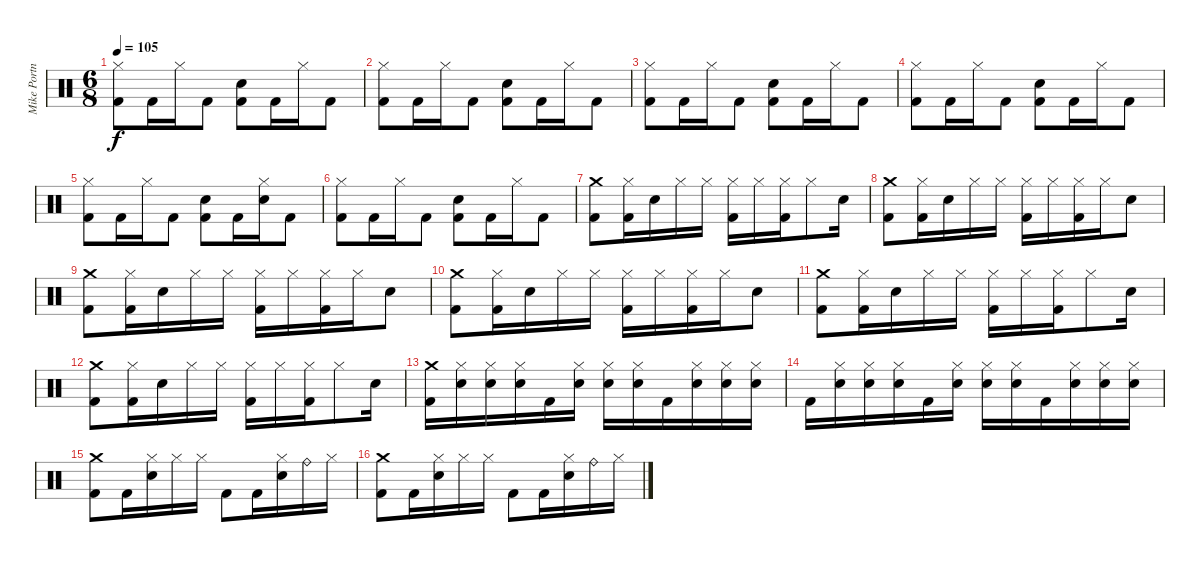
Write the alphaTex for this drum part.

\track ("Mike Portnoy" "Mike Portn") {instrument percussion}
\staff {score}
\articulation defaults
\ts (6 8)
\tempo 105
\clef neutral
\ks c
("Hi-Hat (closed)" "Kick (hit) 2").8{dy f} "Kick (hit) 2".16 "Hi-Hat (closed)".16 "Kick (hit) 2".8 ("Electric Snare (hit)" "Kick (hit) 2").8 "Kick (hit) 2".16 "Hi-Hat (closed)".16 "Kick (hit) 2".8 |
("Hi-Hat (closed)" "Kick (hit) 2").8 "Kick (hit) 2".16 "Hi-Hat (closed)".16 "Kick (hit) 2".8 ("Electric Snare (hit)" "Kick (hit) 2").8 "Kick (hit) 2".16 "Hi-Hat (closed)".16 "Kick (hit) 2".8 |
("Hi-Hat (closed)" "Kick (hit) 2").8 "Kick (hit) 2".16 "Hi-Hat (closed)".16 "Kick (hit) 2".8 ("Electric Snare (hit)" "Kick (hit) 2").8 "Kick (hit) 2".16 "Hi-Hat (closed)".16 "Kick (hit) 2".8 |
("Hi-Hat (closed)" "Kick (hit) 2").8 "Kick (hit) 2".16 "Hi-Hat (closed)".16 "Kick (hit) 2".8 ("Electric Snare (hit)" "Kick (hit) 2").8 "Kick (hit) 2".16 "Hi-Hat (closed)".16 "Kick (hit) 2".8 |
("Hi-Hat (closed)" "Kick (hit) 2").8 "Kick (hit) 2".16 "Hi-Hat (closed)".16 "Kick (hit) 2".8 ("Electric Snare (hit)" "Kick (hit) 2").8 "Kick (hit) 2".16 ("Hi-Hat (closed)" "Electric Snare (hit)").16 "Kick (hit) 2".8 |
("Hi-Hat (closed)" "Kick (hit) 2").8 "Kick (hit) 2".16 "Hi-Hat (closed)".16 "Kick (hit) 2".8 ("Electric Snare (hit)" "Kick (hit) 2").8 "Kick (hit) 2".16 "Hi-Hat (closed)".16 "Kick (hit) 2".8 |
("Crash medium (hit)" "Kick (hit) 2").8 ("Hi-Hat (closed)" "Kick (hit) 2").16 "Electric Snare (hit)".16 "Hi-Hat (closed)".16 "Hi-Hat (closed)".16 ("Hi-Hat (closed)" "Kick (hit) 2").16 "Hi-Hat (closed)".16 ("Hi-Hat (closed)" "Kick (hit) 2").16 "Hi-Hat (closed)".8 "Electric Snare (hit)".16 |
("Crash medium (hit)" "Kick (hit) 2").8 ("Hi-Hat (closed)" "Kick (hit) 2").16 "Electric Snare (hit)".16 "Hi-Hat (closed)".16 "Hi-Hat (closed)".16 ("Hi-Hat (closed)" "Kick (hit) 2").16 "Hi-Hat (closed)".16 ("Hi-Hat (closed)" "Kick (hit) 2").16 "Hi-Hat (closed)".16 "Electric Snare (hit)".8 |
("Crash medium (hit)" "Kick (hit) 2").8 ("Hi-Hat (closed)" "Kick (hit) 2").16 "Electric Snare (hit)".16 "Hi-Hat (closed)".16 "Hi-Hat (closed)".16 ("Hi-Hat (closed)" "Kick (hit) 2").16 "Hi-Hat (closed)".16 ("Hi-Hat (closed)" "Kick (hit) 2").16 "Hi-Hat (closed)".16 "Electric Snare (hit)".8 |
("Crash medium (hit)" "Kick (hit) 2").8 ("Hi-Hat (closed)" "Kick (hit) 2").16 "Electric Snare (hit)".16 "Hi-Hat (closed)".16 "Hi-Hat (closed)".16 ("Hi-Hat (closed)" "Kick (hit) 2").16 "Hi-Hat (closed)".16 ("Hi-Hat (closed)" "Kick (hit) 2").16 "Hi-Hat (closed)".16 "Electric Snare (hit)".8 |
("Crash medium (hit)" "Kick (hit) 2").8 ("Hi-Hat (closed)" "Kick (hit) 2").16 "Electric Snare (hit)".16 "Hi-Hat (closed)".16 "Hi-Hat (closed)".16 ("Hi-Hat (closed)" "Kick (hit) 2").16 "Hi-Hat (closed)".16 ("Hi-Hat (closed)" "Kick (hit) 2").16 "Hi-Hat (closed)".8 "Electric Snare (hit)".16 |
("Crash medium (hit)" "Kick (hit) 2").8 ("Hi-Hat (closed)" "Kick (hit) 2").16 "Electric Snare (hit)".16 "Hi-Hat (closed)".16 "Hi-Hat (closed)".16 ("Hi-Hat (closed)" "Kick (hit) 2").16 "Hi-Hat (closed)".16 ("Hi-Hat (closed)" "Kick (hit) 2").16 "Hi-Hat (closed)".8 "Electric Snare (hit)".16 |
("Crash medium (hit)" "Kick (hit) 2").16 ("Hi-Hat (closed)" "Electric Snare (hit)").16 ("Hi-Hat (closed)" "Electric Snare (hit)").16 ("Hi-Hat (closed)" "Electric Snare (hit)").16 "Kick (hit) 2".16 ("Hi-Hat (closed)" "Electric Snare (hit)").16 ("Hi-Hat (closed)" "Electric Snare (hit)").16 ("Hi-Hat (closed)" "Electric Snare (hit)").16 "Kick (hit) 2".16 ("Hi-Hat (closed)" "Electric Snare (hit)").16 ("Hi-Hat (closed)" "Electric Snare (hit)").16 ("Hi-Hat (closed)" "Electric Snare (hit)").16 |
"Kick (hit) 2".16 ("Hi-Hat (closed)" "Electric Snare (hit)").16 ("Hi-Hat (closed)" "Electric Snare (hit)").16 ("Hi-Hat (closed)" "Electric Snare (hit)").16 "Kick (hit) 2".16 ("Hi-Hat (closed)" "Electric Snare (hit)").16 ("Hi-Hat (closed)" "Electric Snare (hit)").16 ("Hi-Hat (closed)" "Electric Snare (hit)").16 "Kick (hit) 2".16 ("Hi-Hat (closed)" "Electric Snare (hit)").16 ("Hi-Hat (closed)" "Electric Snare (hit)").16 ("Hi-Hat (closed)" "Electric Snare (hit)").16 |
("Crash medium (hit)" "Kick (hit) 2").8 "Kick (hit) 2".16 ("Hi-Hat (closed)" "Electric Snare (hit)").16 "Hi-Hat (closed)".16 "Hi-Hat (closed)".16 "Kick (hit) 2".8 "Kick (hit) 2".16 ("Hi-Hat (closed)" "Electric Snare (hit)").16 "Ride (bell)".16 "Hi-Hat (closed)".16 |
("Crash medium (hit)" "Kick (hit) 2").8 "Kick (hit) 2".16 ("Hi-Hat (closed)" "Electric Snare (hit)").16 "Hi-Hat (closed)".16 "Hi-Hat (closed)".16 "Kick (hit) 2".8 "Kick (hit) 2".16 ("Hi-Hat (closed)" "Electric Snare (hit)").16 "Ride (bell)".16 "Hi-Hat (closed)".16
